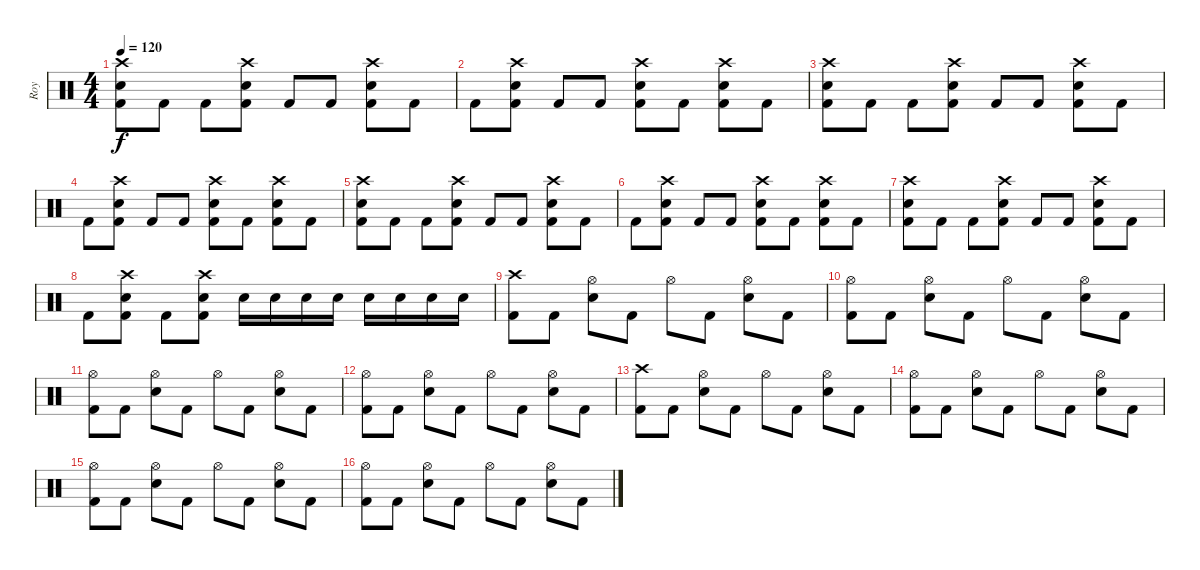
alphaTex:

\track ("Roy" "Roy") {instrument percussion}
\staff {score}
\articulation defaults
\ts (4 4)
\tempo 120
\clef neutral
\ks c
("Crash high (hit)" "Electric Snare (hit)" "Kick (hit) 2").8{dy f} "Kick (hit) 2".8 "Kick (hit) 2".8 ("Crash high (hit)" "Electric Snare (hit)" "Kick (hit) 2").8 "Kick (hit) 2".8 "Kick (hit) 2".8 ("Crash high (hit)" "Electric Snare (hit)" "Kick (hit) 2").8 "Kick (hit) 2".8 |
"Kick (hit) 2".8 ("Crash high (hit)" "Electric Snare (hit)" "Kick (hit) 2").8 "Kick (hit) 2".8 "Kick (hit) 2".8 ("Crash high (hit)" "Electric Snare (hit)" "Kick (hit) 2").8 "Kick (hit) 2".8 ("Crash high (hit)" "Electric Snare (hit)" "Kick (hit) 2").8 "Kick (hit) 2".8 |
("Crash high (hit)" "Electric Snare (hit)" "Kick (hit) 2").8 "Kick (hit) 2".8 "Kick (hit) 2".8 ("Crash high (hit)" "Electric Snare (hit)" "Kick (hit) 2").8 "Kick (hit) 2".8 "Kick (hit) 2".8 ("Crash high (hit)" "Electric Snare (hit)" "Kick (hit) 2").8 "Kick (hit) 2".8 |
"Kick (hit) 2".8 ("Crash high (hit)" "Electric Snare (hit)" "Kick (hit) 2").8 "Kick (hit) 2".8 "Kick (hit) 2".8 ("Crash high (hit)" "Electric Snare (hit)" "Kick (hit) 2").8 "Kick (hit) 2".8 ("Crash high (hit)" "Electric Snare (hit)" "Kick (hit) 2").8 "Kick (hit) 2".8 |
("Crash high (hit)" "Electric Snare (hit)" "Kick (hit) 2").8 "Kick (hit) 2".8 "Kick (hit) 2".8 ("Crash high (hit)" "Electric Snare (hit)" "Kick (hit) 2").8 "Kick (hit) 2".8 "Kick (hit) 2".8 ("Crash high (hit)" "Electric Snare (hit)" "Kick (hit) 2").8 "Kick (hit) 2".8 |
"Kick (hit) 2".8 ("Crash high (hit)" "Electric Snare (hit)" "Kick (hit) 2").8 "Kick (hit) 2".8 "Kick (hit) 2".8 ("Crash high (hit)" "Electric Snare (hit)" "Kick (hit) 2").8 "Kick (hit) 2".8 ("Crash high (hit)" "Electric Snare (hit)" "Kick (hit) 2").8 "Kick (hit) 2".8 |
("Crash high (hit)" "Electric Snare (hit)" "Kick (hit) 2").8 "Kick (hit) 2".8 "Kick (hit) 2".8 ("Crash high (hit)" "Electric Snare (hit)" "Kick (hit) 2").8 "Kick (hit) 2".8 "Kick (hit) 2".8 ("Crash high (hit)" "Electric Snare (hit)" "Kick (hit) 2").8 "Kick (hit) 2".8 |
"Kick (hit) 2".8 ("Crash high (hit)" "Electric Snare (hit)" "Kick (hit) 2").8 "Kick (hit) 2".8 ("Crash high (hit)" "Electric Snare (hit)" "Kick (hit) 2").8 "Electric Snare (hit)".16 "Electric Snare (hit)".16 "Electric Snare (hit)".16 "Electric Snare (hit)".16 "Electric Snare (hit)".16 "Electric Snare (hit)".16 "Electric Snare (hit)".16 "Electric Snare (hit)".16 |
("Crash high (hit)" "Kick (hit) 2").8 "Kick (hit) 2".8 ("Hi-Hat (open)" "Electric Snare (hit)").8 "Kick (hit) 2".8 "Hi-Hat (open)".8 "Kick (hit) 2".8 ("Hi-Hat (open)" "Electric Snare (hit)").8 "Kick (hit) 2".8 |
("Hi-Hat (open)" "Kick (hit) 2").8 "Kick (hit) 2".8 ("Hi-Hat (open)" "Electric Snare (hit)").8 "Kick (hit) 2".8 "Hi-Hat (open)".8 "Kick (hit) 2".8 ("Hi-Hat (open)" "Electric Snare (hit)").8 "Kick (hit) 2".8 |
("Hi-Hat (open)" "Kick (hit) 2").8 "Kick (hit) 2".8 ("Hi-Hat (open)" "Electric Snare (hit)").8 "Kick (hit) 2".8 "Hi-Hat (open)".8 "Kick (hit) 2".8 ("Hi-Hat (open)" "Electric Snare (hit)").8 "Kick (hit) 2".8 |
("Hi-Hat (open)" "Kick (hit) 2").8 "Kick (hit) 2".8 ("Hi-Hat (open)" "Electric Snare (hit)").8 "Kick (hit) 2".8 "Hi-Hat (open)".8 "Kick (hit) 2".8 ("Hi-Hat (open)" "Electric Snare (hit)").8 "Kick (hit) 2".8 |
("Crash high (hit)" "Kick (hit) 2").8 "Kick (hit) 2".8 ("Hi-Hat (open)" "Electric Snare (hit)").8 "Kick (hit) 2".8 "Hi-Hat (open)".8 "Kick (hit) 2".8 ("Hi-Hat (open)" "Electric Snare (hit)").8 "Kick (hit) 2".8 |
("Hi-Hat (open)" "Kick (hit) 2").8 "Kick (hit) 2".8 ("Hi-Hat (open)" "Electric Snare (hit)").8 "Kick (hit) 2".8 "Hi-Hat (open)".8 "Kick (hit) 2".8 ("Hi-Hat (open)" "Electric Snare (hit)").8 "Kick (hit) 2".8 |
("Hi-Hat (open)" "Kick (hit) 2").8 "Kick (hit) 2".8 ("Hi-Hat (open)" "Electric Snare (hit)").8 "Kick (hit) 2".8 "Hi-Hat (open)".8 "Kick (hit) 2".8 ("Hi-Hat (open)" "Electric Snare (hit)").8 "Kick (hit) 2".8 |
("Hi-Hat (open)" "Kick (hit) 2").8 "Kick (hit) 2".8 ("Hi-Hat (open)" "Electric Snare (hit)").8 "Kick (hit) 2".8 "Hi-Hat (open)".8 "Kick (hit) 2".8 ("Hi-Hat (open)" "Electric Snare (hit)").8 "Kick (hit) 2".8
